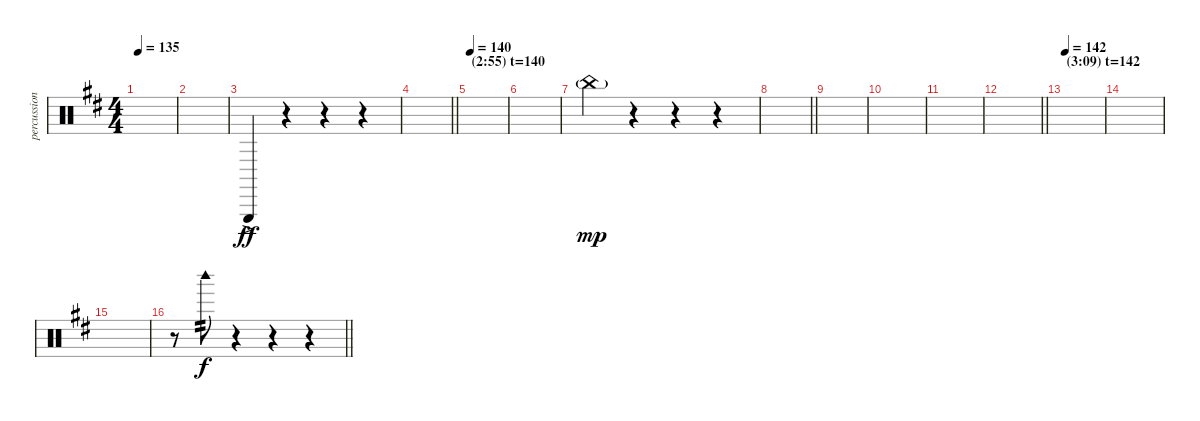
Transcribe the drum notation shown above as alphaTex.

\track ("percussion" "percussion") {instrument percussion}
\staff {score}
\articulation defaults
\ts (4 4)
\tempo 135
\clef neutral
\ks d
|
|
"Triangle (hit)"{ac}.4{dy ff} r.4 r.4 r.4 |
\barLineRight lightlight
|
\section ("" "(2:55) t=140")
\tempo 140
|
|
"China (hit)"{g}.4{dy mp} r.4 r.4 r.4 |
\barLineRight lightlight
|
|
|
|
\barLineRight lightlight
|
\section ("" "(3:09) t=142")
\tempo 142
|
|
|
\barLineRight lightlight
r.8 "Woodblock high (hit)".8{tp 2 dy f} r.4 r.4 r.4
